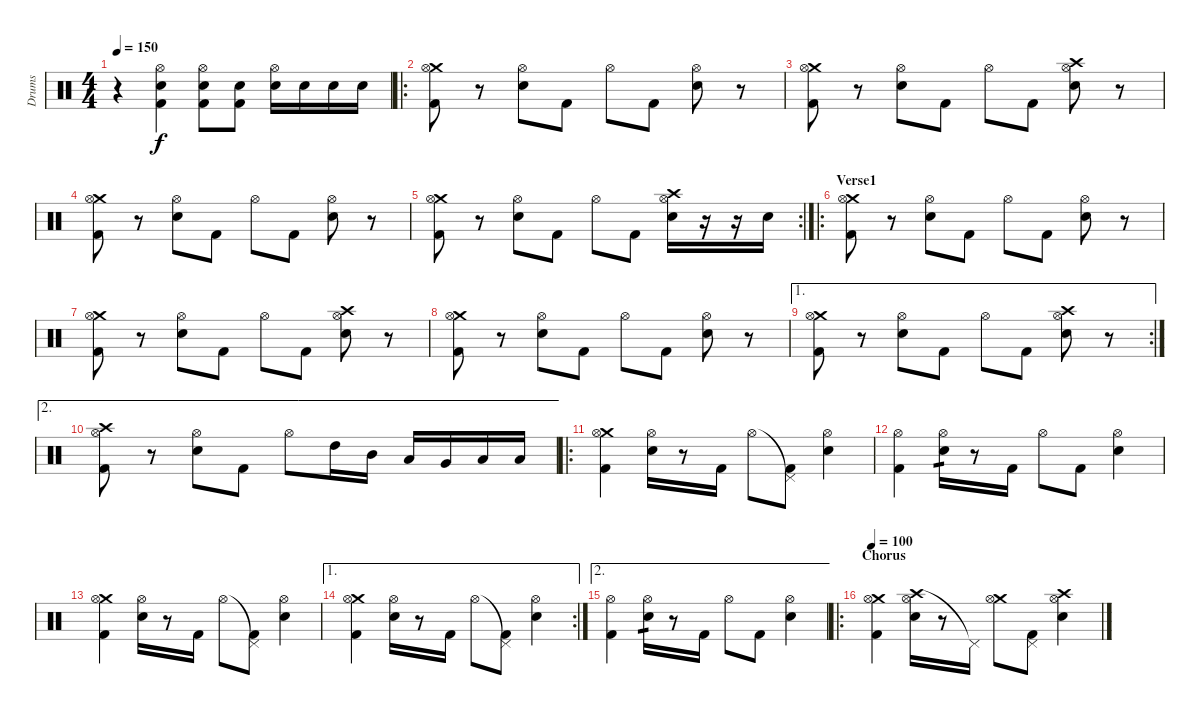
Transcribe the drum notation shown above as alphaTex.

\track ("Drums" "Drums") {instrument percussion}
\staff {score}
\articulation defaults
\ts (4 4)
\tempo 150
\clef neutral
\ks c
r.4{dy f} ("Hi-Hat (open)" "Electric Snare (hit)" "Kick (hit) 2").4 ("Hi-Hat (open)" "Electric Snare (hit)" "Kick (hit) 2").8 ("Electric Snare (hit)" "Kick (hit) 2").8 ("Hi-Hat (open)" "Electric Snare (hit)").16 "Electric Snare (hit)".16 "Electric Snare (hit)".16 "Electric Snare (hit)".16 |
\ro
("Crash medium (hit)" "Hi-Hat (open)" "Kick (hit) 2").8 r.8 ("Hi-Hat (open)" "Snare (hit) 2").8 "Kick (hit) 2".8 "Hi-Hat (open)".8 "Kick (hit) 2".8 ("Hi-Hat (open)" "Snare (hit) 2").8 r.8 |
("Crash medium (hit)" "Hi-Hat (open)" "Kick (hit) 2").8 r.8 ("Hi-Hat (open)" "Snare (hit) 2").8 "Kick (hit) 2".8 "Hi-Hat (open)".8 "Kick (hit) 2".8 ("Crash high (hit)" "Hi-Hat (open)" "Snare (hit) 2").8 r.8 |
("Crash medium (hit)" "Hi-Hat (open)" "Kick (hit) 2").8 r.8 ("Hi-Hat (open)" "Snare (hit) 2").8 "Kick (hit) 2".8 "Hi-Hat (open)".8 "Kick (hit) 2".8 ("Hi-Hat (open)" "Snare (hit) 2").8 r.8 |
\rc 2
("Crash medium (hit)" "Hi-Hat (open)" "Kick (hit) 2").8 r.8 ("Hi-Hat (open)" "Snare (hit) 2").8 "Kick (hit) 2".8 "Hi-Hat (open)".8 "Kick (hit) 2".8 ("Crash high (hit)" "Hi-Hat (open)" "Snare (hit) 2").16 r.16 r.16 "Snare (hit) 2".16 |
\ro
\section ("" "Verse1")
("Crash medium (hit)" "Hi-Hat (open)" "Kick (hit) 2").8 r.8 ("Hi-Hat (open)" "Snare (hit) 2").8 "Kick (hit) 2".8 "Hi-Hat (open)".8 "Kick (hit) 2".8 ("Hi-Hat (open)" "Snare (hit) 2").8 r.8 |
("Crash medium (hit)" "Hi-Hat (open)" "Kick (hit) 2").8 r.8 ("Hi-Hat (open)" "Snare (hit) 2").8 "Kick (hit) 2".8 "Hi-Hat (open)".8 "Kick (hit) 2".8 ("Crash high (hit)" "Hi-Hat (open)" "Snare (hit) 2").8 r.8 |
("Crash medium (hit)" "Hi-Hat (open)" "Kick (hit) 2").8 r.8 ("Hi-Hat (open)" "Snare (hit) 2").8 "Kick (hit) 2".8 "Hi-Hat (open)".8 "Kick (hit) 2".8 ("Hi-Hat (open)" "Snare (hit) 2").8 r.8 |
\ae 1
\rc 2
("Crash medium (hit)" "Hi-Hat (open)" "Kick (hit) 2").8 r.8 ("Hi-Hat (open)" "Snare (hit) 2").8 "Kick (hit) 2".8 "Hi-Hat (open)".8 "Kick (hit) 2".8 ("Crash high (hit)" "Hi-Hat (open)" "Snare (hit) 2").8 r.8 |
\ae 2
("Crash high (hit)" "Hi-Hat (open)" "Kick (hit) 2").8 r.8 ("Hi-Hat (open)" "Snare (hit) 2").8 "Kick (hit) 2".8 "Hi-Hat (open)".8 "High Tom (hit)".16 "Mid Tom (hit)".16 "Low Tom (hit)".16 "Very Low Tom (hit)".16 "Low Floor Tom (hit)".16 "Low Floor Tom (hit)".16 |
\ro
("Crash medium (hit)" "Hi-Hat (open)" "Kick (hit) 2").4 ("Hi-Hat (open)" "Electric Snare (hit)").16 r.8 "Kick (hit) 2".16 "Hi-Hat (open)".8 ("Pedal Hi-Hat (hit)"{t} "Kick (hit) 2").8 ("Hi-Hat (open)" "Electric Snare (hit)").4 |
("Hi-Hat (open)" "Kick (hit) 2").4 ("Hi-Hat (open)" "Electric Snare (hit)").16{tp 1} r.8 "Kick (hit) 2".16 "Hi-Hat (open)".8 "Kick (hit) 2".8 ("Hi-Hat (open)" "Electric Snare (hit)").4 |
("Crash medium (hit)" "Hi-Hat (open)" "Kick (hit) 2").4 ("Hi-Hat (open)" "Electric Snare (hit)").16 r.8 "Kick (hit) 2".16 "Hi-Hat (open)".8 ("Pedal Hi-Hat (hit)"{t} "Kick (hit) 2").8 ("Hi-Hat (open)" "Electric Snare (hit)").4 |
\ae 1
\rc 2
("Crash medium (hit)" "Hi-Hat (open)" "Kick (hit) 2").4 ("Hi-Hat (open)" "Electric Snare (hit)").16 r.8 "Kick (hit) 2".16 "Hi-Hat (open)".8 ("Pedal Hi-Hat (hit)"{t} "Kick (hit) 2").8 ("Hi-Hat (open)" "Electric Snare (hit)").4 |
\ae 2
("Hi-Hat (open)" "Kick (hit) 2").4 ("Hi-Hat (open)" "Electric Snare (hit)").16{tp 1} r.8 "Kick (hit) 2".16 "Hi-Hat (open)".8 "Kick (hit) 2".8 ("Hi-Hat (open)" "Electric Snare (hit)").4 |
\ro
\section ("" "Chorus")
\tempo 100
("Crash medium (hit)" "Hi-Hat (open)" "Kick (hit) 2").4 ("Crash high (hit)" "Hi-Hat (open)" "Electric Snare (hit)").16 r.8 "Pedal Hi-Hat (hit)"{t}.16 ("Crash medium (hit)" "Hi-Hat (open)").8 ("Pedal Hi-Hat (hit)" "Kick (hit) 2").8 ("Crash high (hit)" "Hi-Hat (open)" "Electric Snare (hit)").4
